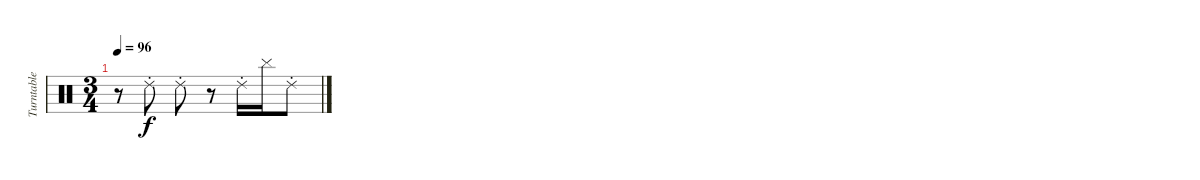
\track ("Turntable" "Turntable") {instrument percussion}
\staff {score}
\articulation defaults
\ts (3 4)
\tempo 96
\clef neutral
\ks c
r.8{dy f} "Ride (choke) 2".8 "Ride (choke) 2".8 r.8 "Ride (choke) 2".16 "Cymbal (hit)".16 "Ride (choke) 2".8
